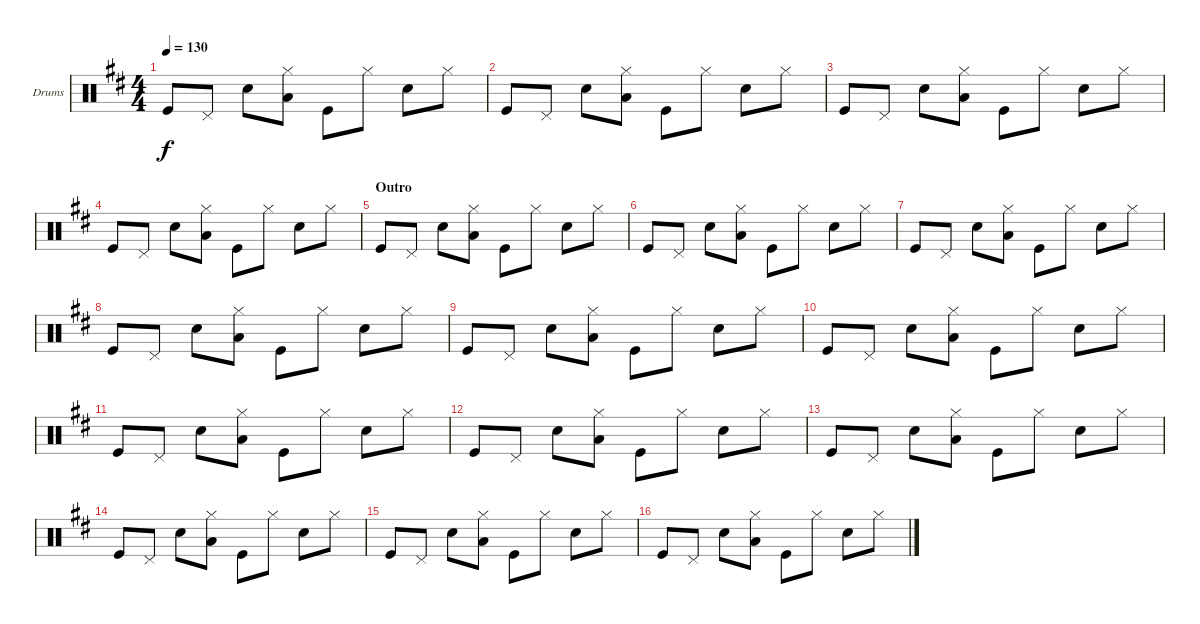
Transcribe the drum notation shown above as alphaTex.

\defaultSystemsLayout 4
\bracketExtendMode groupsimilarinstruments
\firstSystemTrackNameOrientation horizontal
\otherSystemsTrackNameOrientation horizontal
\track ("Drumkit" "Drums") {instrument percussion}
\staff {score}
\articulation defaults
\ts (4 4)
\tempo 130
\clef neutral
\scale
0.333333
\ks d "Kick (hit)".8{dy f} "Pedal Hi-Hat (hit)".8 "Snare (hit) 2".8
("Hi-Hat (closed)" "Low Tom (hit)").8 "Kick (hit)".8 "Hi-Hat (closed)".8 "Snare (hit) 2".8 "Hi-Hat (closed)".8 |
\scale
0.333333 "Kick (hit)".8 "Pedal Hi-Hat (hit)".8 "Snare (hit) 2".8 ("Hi-Hat (closed)" "Low Tom (hit)").8 "Kick (hit)".8 "Hi-Hat (closed)".8 "Snare (hit) 2".8 "Hi-Hat (closed)".8 |
\scale
0.333333 "Kick (hit)".8 "Pedal Hi-Hat (hit)".8 "Snare (hit) 2".8 ("Hi-Hat (closed)" "Low Tom (hit)").8 "Kick (hit)".8 "Hi-Hat (closed)".8 "Snare (hit) 2".8 "Hi-Hat (closed)".8 |
\scale
0.333333 "Kick (hit)".8 "Pedal Hi-Hat (hit)".8 "Snare (hit) 2".8 ("Hi-Hat (closed)" "Low Tom (hit)").8 "Kick (hit)".8 "Hi-Hat (closed)".8 "Snare (hit) 2".8 "Hi-Hat (closed)".8 |
\section ("" "Outro")
\scale
0.333333 "Kick (hit)".8 "Pedal Hi-Hat (hit)".8 "Snare (hit) 2".8 ("Hi-Hat (closed)" "Low Tom (hit)").8 "Kick (hit)".8 "Hi-Hat (closed)".8 "Snare (hit) 2".8 "Hi-Hat (closed)".8 |
\scale
0.333333 "Kick (hit)".8 "Pedal Hi-Hat (hit)".8 "Snare (hit) 2".8 ("Hi-Hat (closed)" "Low Tom (hit)").8 "Kick (hit)".8 "Hi-Hat (closed)".8 "Snare (hit) 2".8 "Hi-Hat (closed)".8 |
\scale
0.333333 "Kick (hit)".8 "Pedal Hi-Hat (hit)".8 "Snare (hit) 2".8 ("Hi-Hat (closed)" "Low Tom (hit)").8 "Kick (hit)".8 "Hi-Hat (closed)".8 "Snare (hit) 2".8 "Hi-Hat (closed)".8 |
\scale
0.333333 "Kick (hit)".8 "Pedal Hi-Hat (hit)".8 "Snare (hit) 2".8 ("Hi-Hat (closed)" "Low Tom (hit)").8 "Kick (hit)".8 "Hi-Hat (closed)".8 "Snare (hit) 2".8 "Hi-Hat (closed)".8 |
\scale
0.333333 "Kick (hit)".8 "Pedal Hi-Hat (hit)".8 "Snare (hit) 2".8 ("Hi-Hat (closed)" "Low Tom (hit)").8 "Kick (hit)".8 "Hi-Hat (closed)".8 "Snare (hit) 2".8 "Hi-Hat (closed)".8 |
\scale
0.333333 "Kick (hit)".8 "Pedal Hi-Hat (hit)".8 "Snare (hit) 2".8 ("Hi-Hat (closed)" "Low Tom (hit)").8 "Kick (hit)".8 "Hi-Hat (closed)".8 "Snare (hit) 2".8 "Hi-Hat (closed)".8 |
\scale
0.333333 "Kick (hit)".8 "Pedal Hi-Hat (hit)".8 "Snare (hit) 2".8 ("Hi-Hat (closed)" "Low Tom (hit)").8 "Kick (hit)".8 "Hi-Hat (closed)".8 "Snare (hit) 2".8 "Hi-Hat (closed)".8 |
\scale
0.333333 "Kick (hit)".8 "Pedal Hi-Hat (hit)".8 "Snare (hit) 2".8 ("Hi-Hat (closed)" "Low Tom (hit)").8 "Kick (hit)".8 "Hi-Hat (closed)".8 "Snare (hit) 2".8 "Hi-Hat (closed)".8 |
\scale
0.333333 "Kick (hit)".8 "Pedal Hi-Hat (hit)".8 "Snare (hit) 2".8 ("Hi-Hat (closed)" "Low Tom (hit)").8 "Kick (hit)".8 "Hi-Hat (closed)".8 "Snare (hit) 2".8 "Hi-Hat (closed)".8 |
\scale
0.333333 "Kick (hit)".8 "Pedal Hi-Hat (hit)".8 "Snare (hit) 2".8 ("Hi-Hat (closed)" "Low Tom (hit)").8 "Kick (hit)".8 "Hi-Hat (closed)".8 "Snare (hit) 2".8 "Hi-Hat (closed)".8 |
\scale
0.333333 "Kick (hit)".8 "Pedal Hi-Hat (hit)".8 "Snare (hit) 2".8 ("Hi-Hat (closed)" "Low Tom (hit)").8 "Kick (hit)".8 "Hi-Hat (closed)".8 "Snare (hit) 2".8 "Hi-Hat (closed)".8 |
\scale
0.333333 "Kick (hit)".8 "Pedal Hi-Hat (hit)".8 "Snare (hit) 2".8 ("Hi-Hat (closed)" "Low Tom (hit)").8 "Kick (hit)".8 "Hi-Hat (closed)".8 "Snare (hit) 2".8 "Hi-Hat (closed)".8
